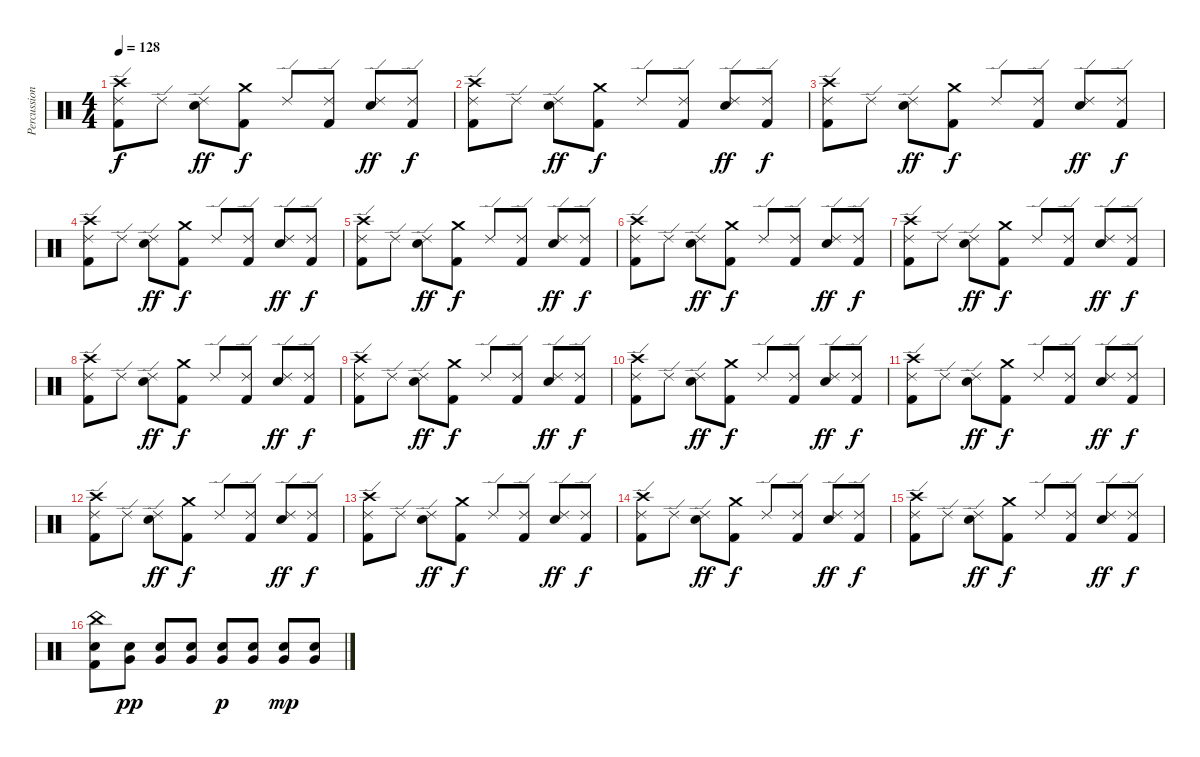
\track ("Percussion" "Percussion") {instrument percussion}
\staff {score}
\articulation defaults
\ts (4 4)
\tempo 128
\clef neutral
\ks c
("Crash high (hit)" "Ride (edge) 2" "Kick (hit) 2").8{dy f} "Ride (edge) 2".8 ("Ride (edge) 2" "Snare (hit) 2").8{dy ff} ("Crash medium (hit)" "Kick (hit) 2").8{dy f} "Ride (edge) 2".8 ("Ride (edge) 2" "Kick (hit) 2").8 ("Ride (edge) 2" "Snare (hit) 2").8{dy ff} ("Ride (edge) 2" "Kick (hit) 2").8{dy f} |
("Crash high (hit)" "Ride (edge) 2" "Kick (hit) 2").8 "Ride (edge) 2".8 ("Ride (edge) 2" "Snare (hit) 2").8{dy ff} ("Crash medium (hit)" "Kick (hit) 2").8{dy f} "Ride (edge) 2".8 ("Ride (edge) 2" "Kick (hit) 2").8 ("Ride (edge) 2" "Snare (hit) 2").8{dy ff} ("Ride (edge) 2" "Kick (hit) 2").8{dy f} |
("Crash high (hit)" "Ride (edge) 2" "Kick (hit) 2").8 "Ride (edge) 2".8 ("Ride (edge) 2" "Snare (hit) 2").8{dy ff} ("Crash medium (hit)" "Kick (hit) 2").8{dy f} "Ride (edge) 2".8 ("Ride (edge) 2" "Kick (hit) 2").8 ("Ride (edge) 2" "Snare (hit) 2").8{dy ff} ("Ride (edge) 2" "Kick (hit) 2").8{dy f} |
("Crash high (hit)" "Ride (edge) 2" "Kick (hit) 2").8 "Ride (edge) 2".8 ("Ride (edge) 2" "Snare (hit) 2").8{dy ff} ("Crash medium (hit)" "Kick (hit) 2").8{dy f} "Ride (edge) 2".8 ("Ride (edge) 2" "Kick (hit) 2").8 ("Ride (edge) 2" "Snare (hit) 2").8{dy ff} ("Ride (edge) 2" "Kick (hit) 2").8{dy f} |
("Crash high (hit)" "Ride (edge) 2" "Kick (hit) 2").8 "Ride (edge) 2".8 ("Ride (edge) 2" "Snare (hit) 2").8{dy ff} ("Crash medium (hit)" "Kick (hit) 2").8{dy f} "Ride (edge) 2".8 ("Ride (edge) 2" "Kick (hit) 2").8 ("Ride (edge) 2" "Snare (hit) 2").8{dy ff} ("Ride (edge) 2" "Kick (hit) 2").8{dy f} |
("Crash high (hit)" "Ride (edge) 2" "Kick (hit) 2").8 "Ride (edge) 2".8 ("Ride (edge) 2" "Snare (hit) 2").8{dy ff} ("Crash medium (hit)" "Kick (hit) 2").8{dy f} "Ride (edge) 2".8 ("Ride (edge) 2" "Kick (hit) 2").8 ("Ride (edge) 2" "Snare (hit) 2").8{dy ff} ("Ride (edge) 2" "Kick (hit) 2").8{dy f} |
("Crash high (hit)" "Ride (edge) 2" "Kick (hit) 2").8 "Ride (edge) 2".8 ("Ride (edge) 2" "Snare (hit) 2").8{dy ff} ("Crash medium (hit)" "Kick (hit) 2").8{dy f} "Ride (edge) 2".8 ("Ride (edge) 2" "Kick (hit) 2").8 ("Ride (edge) 2" "Snare (hit) 2").8{dy ff} ("Ride (edge) 2" "Kick (hit) 2").8{dy f} |
("Crash high (hit)" "Ride (edge) 2" "Kick (hit) 2").8 "Ride (edge) 2".8 ("Ride (edge) 2" "Snare (hit) 2").8{dy ff} ("Crash medium (hit)" "Kick (hit) 2").8{dy f} "Ride (edge) 2".8 ("Ride (edge) 2" "Kick (hit) 2").8 ("Ride (edge) 2" "Snare (hit) 2").8{dy ff} ("Ride (edge) 2" "Kick (hit) 2").8{dy f} |
("Crash high (hit)" "Ride (edge) 2" "Kick (hit) 2").8 "Ride (edge) 2".8 ("Ride (edge) 2" "Snare (hit) 2").8{dy ff} ("Crash medium (hit)" "Kick (hit) 2").8{dy f} "Ride (edge) 2".8 ("Ride (edge) 2" "Kick (hit) 2").8 ("Ride (edge) 2" "Snare (hit) 2").8{dy ff} ("Ride (edge) 2" "Kick (hit) 2").8{dy f} |
("Crash high (hit)" "Ride (edge) 2" "Kick (hit) 2").8 "Ride (edge) 2".8 ("Ride (edge) 2" "Snare (hit) 2").8{dy ff} ("Crash medium (hit)" "Kick (hit) 2").8{dy f} "Ride (edge) 2".8 ("Ride (edge) 2" "Kick (hit) 2").8 ("Ride (edge) 2" "Snare (hit) 2").8{dy ff} ("Ride (edge) 2" "Kick (hit) 2").8{dy f} |
("Crash high (hit)" "Ride (edge) 2" "Kick (hit) 2").8 "Ride (edge) 2".8 ("Ride (edge) 2" "Snare (hit) 2").8{dy ff} ("Crash medium (hit)" "Kick (hit) 2").8{dy f} "Ride (edge) 2".8 ("Ride (edge) 2" "Kick (hit) 2").8 ("Ride (edge) 2" "Snare (hit) 2").8{dy ff} ("Ride (edge) 2" "Kick (hit) 2").8{dy f} |
("Crash high (hit)" "Ride (edge) 2" "Kick (hit) 2").8 "Ride (edge) 2".8 ("Ride (edge) 2" "Snare (hit) 2").8{dy ff} ("Crash medium (hit)" "Kick (hit) 2").8{dy f} "Ride (edge) 2".8 ("Ride (edge) 2" "Kick (hit) 2").8 ("Ride (edge) 2" "Snare (hit) 2").8{dy ff} ("Ride (edge) 2" "Kick (hit) 2").8{dy f} |
("Crash high (hit)" "Ride (edge) 2" "Kick (hit) 2").8 "Ride (edge) 2".8 ("Ride (edge) 2" "Snare (hit) 2").8{dy ff} ("Crash medium (hit)" "Kick (hit) 2").8{dy f} "Ride (edge) 2".8 ("Ride (edge) 2" "Kick (hit) 2").8 ("Ride (edge) 2" "Snare (hit) 2").8{dy ff} ("Ride (edge) 2" "Kick (hit) 2").8{dy f} |
("Crash high (hit)" "Ride (edge) 2" "Kick (hit) 2").8 "Ride (edge) 2".8 ("Ride (edge) 2" "Snare (hit) 2").8{dy ff} ("Crash medium (hit)" "Kick (hit) 2").8{dy f} "Ride (edge) 2".8 ("Ride (edge) 2" "Kick (hit) 2").8 ("Ride (edge) 2" "Snare (hit) 2").8{dy ff} ("Ride (edge) 2" "Kick (hit) 2").8{dy f} |
("Crash high (hit)" "Ride (edge) 2" "Kick (hit) 2").8 "Ride (edge) 2".8 ("Ride (edge) 2" "Snare (hit) 2").8{dy ff} ("Crash medium (hit)" "Kick (hit) 2").8{dy f} "Ride (edge) 2".8 ("Ride (edge) 2" "Kick (hit) 2").8 ("Ride (edge) 2" "Snare (hit) 2").8{dy ff} ("Ride (edge) 2" "Kick (hit) 2").8{dy f} |
("China (hit)" "Snare (hit) 2" "Kick (hit) 2").8 ("Very Low Tom (hit)" "Snare (hit) 2").8{dy pp} ("Very Low Tom (hit)" "Snare (hit) 2").8 ("Very Low Tom (hit)" "Snare (hit) 2").8 ("Very Low Tom (hit)" "Snare (hit) 2").8{dy p} ("Very Low Tom (hit)" "Snare (hit) 2").8 ("Very Low Tom (hit)" "Snare (hit) 2").8{dy mp} ("Very Low Tom (hit)" "Snare (hit) 2").8
